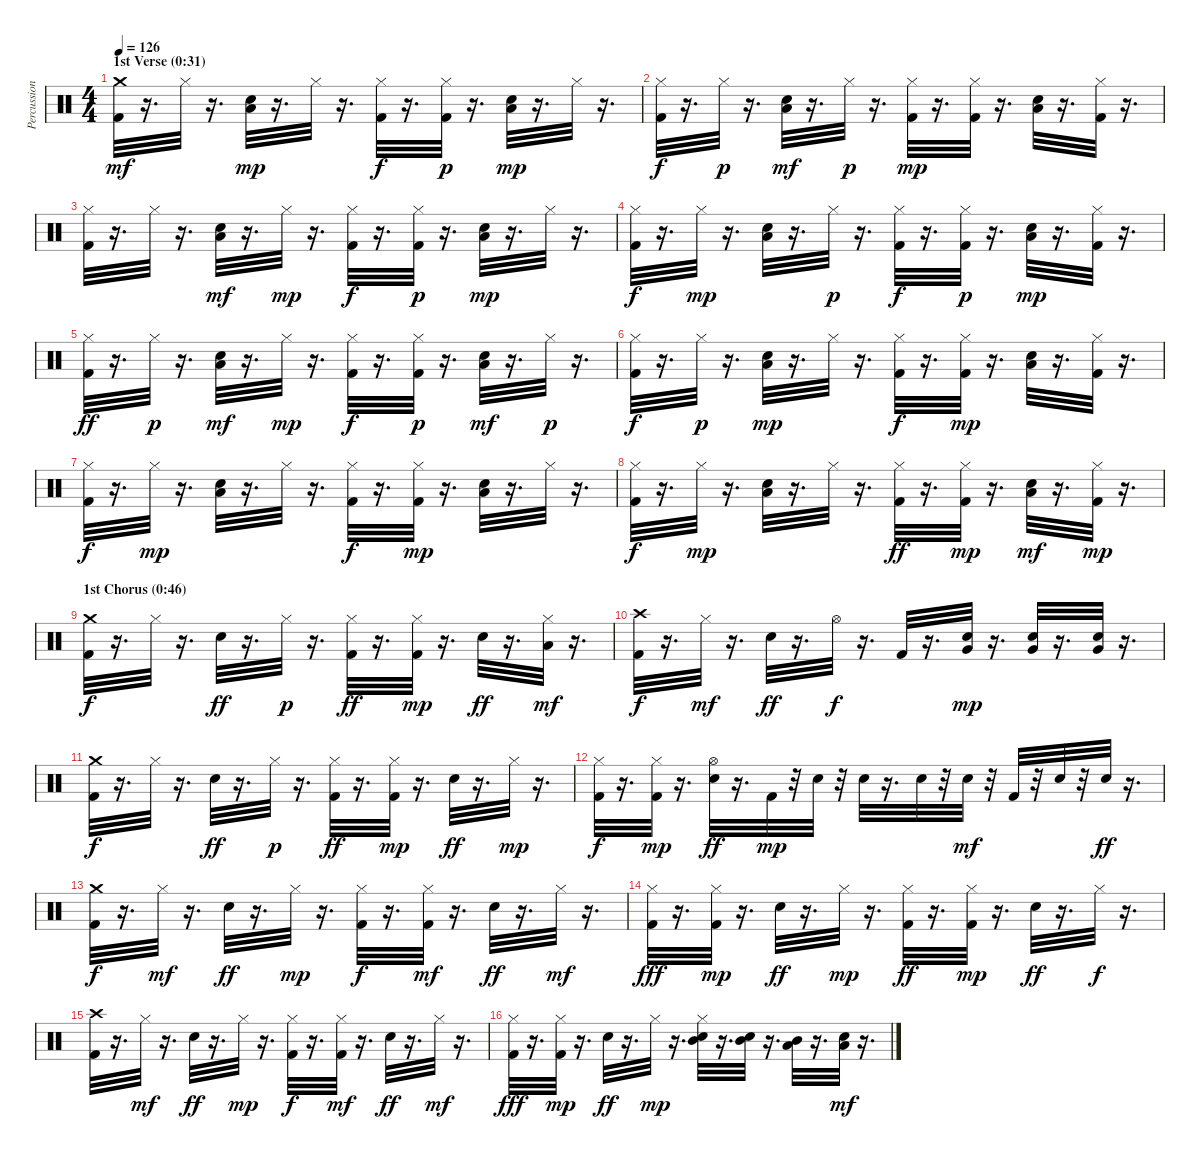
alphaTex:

\track ("Percussions" "Percussion") {instrument percussion}
\staff {score}
\articulation defaults
\ts (4 4)
\section ("" "1st Verse (0:31)")
\tempo 126
\clef neutral
\ks c
("Kick (hit) 2" "Crash medium (hit)").32{dy mf} r.16{d} "Hi-Hat (closed)".32 r.16{d} ("Electric Snare (hit)" "Low Tom (hit)").32{dy mp} r.16{d} "Hi-Hat (closed)".32 r.16{d} ("Kick (hit) 2" "Hi-Hat (closed)").32{dy f} r.16{d} ("Kick (hit) 2" "Hi-Hat (closed)").32{dy p} r.16{d} ("Electric Snare (hit)" "Low Tom (hit)").32{dy mp} r.16{d} "Hi-Hat (closed)".32 r.16{d} |
("Kick (hit) 2" "Hi-Hat (closed)").32{dy f} r.16{d} "Hi-Hat (closed)".32{dy p} r.16{d} ("Electric Snare (hit)" "Low Tom (hit)").32{dy mf} r.16{d} "Hi-Hat (closed)".32{dy p} r.16{d} ("Kick (hit) 2" "Hi-Hat (closed)").32{dy mp} r.16{d} ("Kick (hit) 2" "Hi-Hat (closed)").32 r.16{d} ("Electric Snare (hit)" "Low Tom (hit)").32 r.16{d} ("Kick (hit) 2" "Hi-Hat (closed)").32 r.16{d} |
("Kick (hit) 2" "Hi-Hat (closed)").32 r.16{d} "Hi-Hat (closed)".32 r.16{d} ("Electric Snare (hit)" "Low Tom (hit)").32{dy mf} r.16{d} "Hi-Hat (closed)".32{dy mp} r.16{d} ("Kick (hit) 2" "Hi-Hat (closed)").32{dy f} r.16{d} ("Kick (hit) 2" "Hi-Hat (closed)").32{dy p} r.16{d} ("Electric Snare (hit)" "Low Tom (hit)").32{dy mp} r.16{d} "Hi-Hat (closed)".32 r.16{d} |
("Kick (hit) 2" "Hi-Hat (closed)").32{dy f} r.16{d} "Hi-Hat (closed)".32{dy mp} r.16{d} ("Electric Snare (hit)" "Low Tom (hit)").32 r.16{d} "Hi-Hat (closed)".32{dy p} r.16{d} ("Kick (hit) 2" "Hi-Hat (closed)").32{dy f} r.16{d} ("Kick (hit) 2" "Hi-Hat (closed)").32{dy p} r.16{d} ("Electric Snare (hit)" "Low Tom (hit)").32{dy mp} r.16{d} ("Kick (hit) 2" "Hi-Hat (closed)").32 r.16{d} |
("Kick (hit) 2" "Hi-Hat (closed)").32{dy ff} r.16{d} "Hi-Hat (closed)".32{dy p} r.16{d} ("Electric Snare (hit)" "Low Tom (hit)").32{dy mf} r.16{d} "Hi-Hat (closed)".32{dy mp} r.16{d} ("Kick (hit) 2" "Hi-Hat (closed)").32{dy f} r.16{d} ("Kick (hit) 2" "Hi-Hat (closed)").32{dy p} r.16{d} ("Electric Snare (hit)" "Low Tom (hit)").32{dy mf} r.16{d} "Hi-Hat (closed)".32{dy p} r.16{d} |
("Kick (hit) 2" "Hi-Hat (closed)").32{dy f} r.16{d} "Hi-Hat (closed)".32{dy p} r.16{d} ("Electric Snare (hit)" "Low Tom (hit)").32{dy mp} r.16{d} "Hi-Hat (closed)".32 r.16{d} ("Kick (hit) 2" "Hi-Hat (closed)").32{dy f} r.16{d} ("Kick (hit) 2" "Hi-Hat (closed)").32{dy mp} r.16{d} ("Electric Snare (hit)" "Low Tom (hit)").32 r.16{d} ("Kick (hit) 2" "Hi-Hat (closed)").32 r.16{d} |
("Kick (hit) 2" "Hi-Hat (closed)").32{dy f} r.16{d} "Hi-Hat (closed)".32{dy mp} r.16{d} ("Electric Snare (hit)" "Low Tom (hit)").32 r.16{d} "Hi-Hat (closed)".32 r.16{d} ("Kick (hit) 2" "Hi-Hat (closed)").32{dy f} r.16{d} ("Kick (hit) 2" "Hi-Hat (closed)").32{dy mp} r.16{d} ("Electric Snare (hit)" "Low Tom (hit)").32 r.16{d} "Hi-Hat (closed)".32 r.16{d} |
("Kick (hit) 2" "Hi-Hat (closed)").32{dy f} r.16{d} "Hi-Hat (closed)".32{dy mp} r.16{d} ("Electric Snare (hit)" "Low Tom (hit)").32 r.16{d} "Hi-Hat (closed)".32 r.16{d} ("Kick (hit) 2" "Hi-Hat (closed)").32{dy ff} r.16{d} ("Kick (hit) 2" "Hi-Hat (closed)").32{dy mp} r.16{d} ("Electric Snare (hit)" "Low Tom (hit)").32{dy mf} r.16{d} ("Kick (hit) 2" "Hi-Hat (closed)").32{dy mp} r.16{d} |
\section ("" "1st Chorus (0:46)")
("Kick (hit) 2" "Crash medium (hit)").32{dy f} r.16{d} "Hi-Hat (closed)".32 r.16{d} "Electric Snare (hit)".32{dy ff} r.16{d} "Hi-Hat (closed)".32{dy p} r.16{d} ("Kick (hit) 2" "Hi-Hat (closed)").32{dy ff} r.16{d} ("Kick (hit) 2" "Hi-Hat (closed)").32{dy mp} r.16{d} "Electric Snare (hit)".32{dy ff} r.16{d} ("Hi-Hat (closed)" "Low Tom (hit)").32{dy mf} r.16{d} |
("Kick (hit) 2" "Crash high (hit)").32{dy f} r.16{d} "Hi-Hat (closed)".32{dy mf} r.16{d} "Electric Snare (hit)".32{dy ff} r.16{d} "Hi-Hat (open)".32{dy f} r.16{d} "Kick (hit) 2".32 r.16{d} ("Electric Snare (hit)" "Very Low Tom (hit)").32{dy mp} r.16{d} ("Electric Snare (hit)" "Very Low Tom (hit)").32 r.16{d} ("Electric Snare (hit)" "Very Low Tom (hit)").32 r.16{d} |
("Kick (hit) 2" "Crash medium (hit)").32{dy f} r.16{d} "Hi-Hat (closed)".32 r.16{d} "Electric Snare (hit)".32{dy ff} r.16{d} "Hi-Hat (closed)".32{dy p} r.16{d} ("Kick (hit) 2" "Hi-Hat (closed)").32{dy ff} r.16{d} ("Kick (hit) 2" "Hi-Hat (closed)").32{dy mp} r.16{d} "Electric Snare (hit)".32{dy ff} r.16{d} "Hi-Hat (closed)".32{dy mp} r.16{d} |
("Kick (hit) 2" "Hi-Hat (closed)").32{dy f} r.16{d} ("Kick (hit) 2" "Hi-Hat (closed)").32{dy mp} r.16{d} ("Electric Snare (hit)" "Hi-Hat (open)").32{dy ff} r.16{d} "Kick (hit) 2".32{dy mp} r.32 "Electric Snare (hit)".32 r.32 "Electric Snare (hit)".32 r.16{d} "Electric Snare (hit)".32 r.32 "Electric Snare (hit)".32{dy mf} r.32 "Kick (hit) 2".32 r.32 "Electric Snare (hit)".32 r.32 "Electric Snare (hit)".32{dy ff} r.16{d} |
("Kick (hit) 2" "Crash medium (hit)").32{dy f} r.16{d} "Hi-Hat (closed)".32{dy mf} r.16{d} "Electric Snare (hit)".32{dy ff} r.16{d} "Hi-Hat (closed)".32{dy mp} r.16{d} ("Kick (hit) 2" "Hi-Hat (closed)").32{dy f} r.16{d} ("Kick (hit) 2" "Hi-Hat (closed)").32{dy mf} r.16{d} "Electric Snare (hit)".32{dy ff} r.16{d} "Hi-Hat (closed)".32{dy mf} r.16{d} |
("Kick (hit) 2" "Hi-Hat (closed)").32{dy fff} r.16{d} ("Kick (hit) 2" "Hi-Hat (closed)").32{dy mp} r.16{d} "Electric Snare (hit)".32{dy ff} r.16{d} "Hi-Hat (closed)".32{dy mp} r.16{d} ("Kick (hit) 2" "Hi-Hat (closed)").32{dy ff} r.16{d} ("Kick (hit) 2" "Hi-Hat (closed)").32{dy mp} r.16{d} "Electric Snare (hit)".32{dy ff} r.16{d} "Hi-Hat (closed)".32{dy f} r.16{d} |
("Kick (hit) 2" "Crash high (hit)").32 r.16{d} "Hi-Hat (closed)".32{dy mf} r.16{d} "Electric Snare (hit)".32{dy ff} r.16{d} "Hi-Hat (closed)".32{dy mp} r.16{d} ("Kick (hit) 2" "Hi-Hat (closed)").32{dy f} r.16{d} ("Kick (hit) 2" "Hi-Hat (closed)").32{dy mf} r.16{d} "Electric Snare (hit)".32{dy ff} r.16{d} "Hi-Hat (closed)".32{dy mf} r.16{d} |
("Kick (hit) 2" "Hi-Hat (closed)").32{dy fff} r.16{d} ("Kick (hit) 2" "Hi-Hat (closed)").32{dy mp} r.16{d} "Electric Snare (hit)".32{dy ff} r.16{d} "Hi-Hat (closed)".32{dy mp} r.16{d} ("Electric Snare (hit)" "Hi-Hat (closed)" "Mid Tom (hit)").32 r.16{d} ("Electric Snare (hit)" "Mid Tom (hit)").32 r.16{d} ("Low Tom (hit)" "Mid Tom (hit)").32 r.16{d} ("Electric Snare (hit)" "Low Tom (hit)").32{dy mf} r.16{d}
